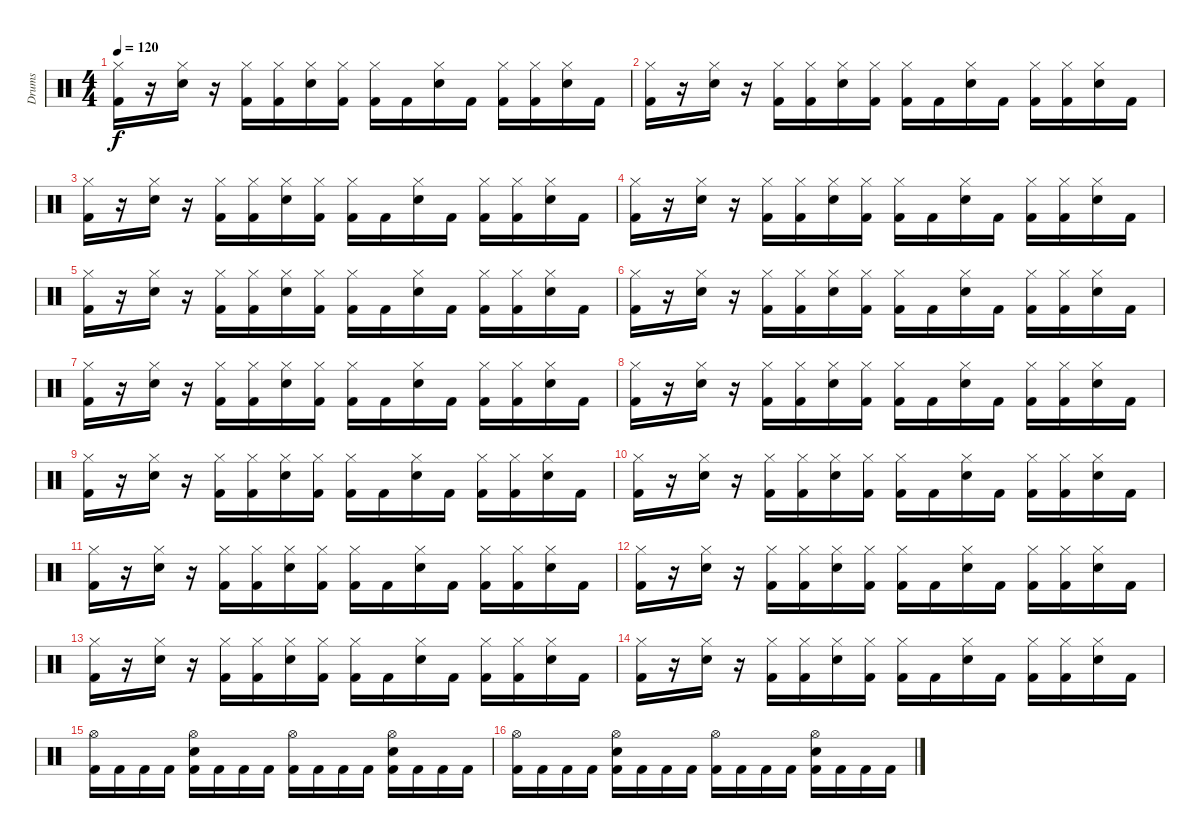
\track ("Drums" "Drums") {instrument percussion}
\staff {score}
\articulation defaults
\ts (4 4)
\tempo 120
\clef neutral
\ks c
("Hi-Hat (closed)" "Kick (hit) 2").16{dy f} r.16 ("Hi-Hat (closed)" "Snare (hit) 2").16 r.16 ("Hi-Hat (closed)" "Kick (hit) 2").16 ("Hi-Hat (closed)" "Kick (hit) 2").16 ("Hi-Hat (closed)" "Snare (hit) 2").16 ("Hi-Hat (closed)" "Kick (hit) 2").16 ("Hi-Hat (closed)" "Kick (hit) 2").16 "Kick (hit) 2".16 ("Hi-Hat (closed)" "Snare (hit) 2").16 "Kick (hit) 2".16 ("Hi-Hat (closed)" "Kick (hit) 2").16 ("Hi-Hat (closed)" "Kick (hit) 2").16 ("Hi-Hat (closed)" "Snare (hit) 2").16 "Kick (hit) 2".16 |
("Hi-Hat (closed)" "Kick (hit) 2").16 r.16 ("Hi-Hat (closed)" "Snare (hit) 2").16 r.16 ("Hi-Hat (closed)" "Kick (hit) 2").16 ("Hi-Hat (closed)" "Kick (hit) 2").16 ("Hi-Hat (closed)" "Snare (hit) 2").16 ("Hi-Hat (closed)" "Kick (hit) 2").16 ("Hi-Hat (closed)" "Kick (hit) 2").16 "Kick (hit) 2".16 ("Hi-Hat (closed)" "Snare (hit) 2").16 "Kick (hit) 2".16 ("Hi-Hat (closed)" "Kick (hit) 2").16 ("Hi-Hat (closed)" "Kick (hit) 2").16 ("Hi-Hat (closed)" "Snare (hit) 2").16 "Kick (hit) 2".16 |
("Hi-Hat (closed)" "Kick (hit) 2").16 r.16 ("Hi-Hat (closed)" "Snare (hit) 2").16 r.16 ("Hi-Hat (closed)" "Kick (hit) 2").16 ("Hi-Hat (closed)" "Kick (hit) 2").16 ("Hi-Hat (closed)" "Snare (hit) 2").16 ("Hi-Hat (closed)" "Kick (hit) 2").16 ("Hi-Hat (closed)" "Kick (hit) 2").16 "Kick (hit) 2".16 ("Hi-Hat (closed)" "Snare (hit) 2").16 "Kick (hit) 2".16 ("Hi-Hat (closed)" "Kick (hit) 2").16 ("Hi-Hat (closed)" "Kick (hit) 2").16 ("Hi-Hat (closed)" "Snare (hit) 2").16 "Kick (hit) 2".16 |
("Hi-Hat (closed)" "Kick (hit) 2").16 r.16 ("Hi-Hat (closed)" "Snare (hit) 2").16 r.16 ("Hi-Hat (closed)" "Kick (hit) 2").16 ("Hi-Hat (closed)" "Kick (hit) 2").16 ("Hi-Hat (closed)" "Snare (hit) 2").16 ("Hi-Hat (closed)" "Kick (hit) 2").16 ("Hi-Hat (closed)" "Kick (hit) 2").16 "Kick (hit) 2".16 ("Hi-Hat (closed)" "Snare (hit) 2").16 "Kick (hit) 2".16 ("Hi-Hat (closed)" "Kick (hit) 2").16 ("Hi-Hat (closed)" "Kick (hit) 2").16 ("Hi-Hat (closed)" "Snare (hit) 2").16 "Kick (hit) 2".16 |
("Hi-Hat (closed)" "Kick (hit) 2").16 r.16 ("Hi-Hat (closed)" "Snare (hit) 2").16 r.16 ("Hi-Hat (closed)" "Kick (hit) 2").16 ("Hi-Hat (closed)" "Kick (hit) 2").16 ("Hi-Hat (closed)" "Snare (hit) 2").16 ("Hi-Hat (closed)" "Kick (hit) 2").16 ("Hi-Hat (closed)" "Kick (hit) 2").16 "Kick (hit) 2".16 ("Hi-Hat (closed)" "Snare (hit) 2").16 "Kick (hit) 2".16 ("Hi-Hat (closed)" "Kick (hit) 2").16 ("Hi-Hat (closed)" "Kick (hit) 2").16 ("Hi-Hat (closed)" "Snare (hit) 2").16 "Kick (hit) 2".16 |
("Hi-Hat (closed)" "Kick (hit) 2").16 r.16 ("Hi-Hat (closed)" "Snare (hit) 2").16 r.16 ("Hi-Hat (closed)" "Kick (hit) 2").16 ("Hi-Hat (closed)" "Kick (hit) 2").16 ("Hi-Hat (closed)" "Snare (hit) 2").16 ("Hi-Hat (closed)" "Kick (hit) 2").16 ("Hi-Hat (closed)" "Kick (hit) 2").16 "Kick (hit) 2".16 ("Hi-Hat (closed)" "Snare (hit) 2").16 "Kick (hit) 2".16 ("Hi-Hat (closed)" "Kick (hit) 2").16 ("Hi-Hat (closed)" "Kick (hit) 2").16 ("Hi-Hat (closed)" "Snare (hit) 2").16 "Kick (hit) 2".16 |
("Hi-Hat (closed)" "Kick (hit) 2").16 r.16 ("Hi-Hat (closed)" "Snare (hit) 2").16 r.16 ("Hi-Hat (closed)" "Kick (hit) 2").16 ("Hi-Hat (closed)" "Kick (hit) 2").16 ("Hi-Hat (closed)" "Snare (hit) 2").16 ("Hi-Hat (closed)" "Kick (hit) 2").16 ("Hi-Hat (closed)" "Kick (hit) 2").16 "Kick (hit) 2".16 ("Hi-Hat (closed)" "Snare (hit) 2").16 "Kick (hit) 2".16 ("Hi-Hat (closed)" "Kick (hit) 2").16 ("Hi-Hat (closed)" "Kick (hit) 2").16 ("Hi-Hat (closed)" "Snare (hit) 2").16 "Kick (hit) 2".16 |
("Hi-Hat (closed)" "Kick (hit) 2").16 r.16 ("Hi-Hat (closed)" "Snare (hit) 2").16 r.16 ("Hi-Hat (closed)" "Kick (hit) 2").16 ("Hi-Hat (closed)" "Kick (hit) 2").16 ("Hi-Hat (closed)" "Snare (hit) 2").16 ("Hi-Hat (closed)" "Kick (hit) 2").16 ("Hi-Hat (closed)" "Kick (hit) 2").16 "Kick (hit) 2".16 ("Hi-Hat (closed)" "Snare (hit) 2").16 "Kick (hit) 2".16 ("Hi-Hat (closed)" "Kick (hit) 2").16 ("Hi-Hat (closed)" "Kick (hit) 2").16 ("Hi-Hat (closed)" "Snare (hit) 2").16 "Kick (hit) 2".16 |
("Hi-Hat (closed)" "Kick (hit) 2").16 r.16 ("Hi-Hat (closed)" "Snare (hit) 2").16 r.16 ("Hi-Hat (closed)" "Kick (hit) 2").16 ("Hi-Hat (closed)" "Kick (hit) 2").16 ("Hi-Hat (closed)" "Snare (hit) 2").16 ("Hi-Hat (closed)" "Kick (hit) 2").16 ("Hi-Hat (closed)" "Kick (hit) 2").16 "Kick (hit) 2".16 ("Hi-Hat (closed)" "Snare (hit) 2").16 "Kick (hit) 2".16 ("Hi-Hat (closed)" "Kick (hit) 2").16 ("Hi-Hat (closed)" "Kick (hit) 2").16 ("Hi-Hat (closed)" "Snare (hit) 2").16 "Kick (hit) 2".16 |
("Hi-Hat (closed)" "Kick (hit) 2").16 r.16 ("Hi-Hat (closed)" "Snare (hit) 2").16 r.16 ("Hi-Hat (closed)" "Kick (hit) 2").16 ("Hi-Hat (closed)" "Kick (hit) 2").16 ("Hi-Hat (closed)" "Snare (hit) 2").16 ("Hi-Hat (closed)" "Kick (hit) 2").16 ("Hi-Hat (closed)" "Kick (hit) 2").16 "Kick (hit) 2".16 ("Hi-Hat (closed)" "Snare (hit) 2").16 "Kick (hit) 2".16 ("Hi-Hat (closed)" "Kick (hit) 2").16 ("Hi-Hat (closed)" "Kick (hit) 2").16 ("Hi-Hat (closed)" "Snare (hit) 2").16 "Kick (hit) 2".16 |
("Hi-Hat (closed)" "Kick (hit) 2").16 r.16 ("Hi-Hat (closed)" "Snare (hit) 2").16 r.16 ("Hi-Hat (closed)" "Kick (hit) 2").16 ("Hi-Hat (closed)" "Kick (hit) 2").16 ("Hi-Hat (closed)" "Snare (hit) 2").16 ("Hi-Hat (closed)" "Kick (hit) 2").16 ("Hi-Hat (closed)" "Kick (hit) 2").16 "Kick (hit) 2".16 ("Hi-Hat (closed)" "Snare (hit) 2").16 "Kick (hit) 2".16 ("Hi-Hat (closed)" "Kick (hit) 2").16 ("Hi-Hat (closed)" "Kick (hit) 2").16 ("Hi-Hat (closed)" "Snare (hit) 2").16 "Kick (hit) 2".16 |
("Hi-Hat (closed)" "Kick (hit) 2").16 r.16 ("Hi-Hat (closed)" "Snare (hit) 2").16 r.16 ("Hi-Hat (closed)" "Kick (hit) 2").16 ("Hi-Hat (closed)" "Kick (hit) 2").16 ("Hi-Hat (closed)" "Snare (hit) 2").16 ("Hi-Hat (closed)" "Kick (hit) 2").16 ("Hi-Hat (closed)" "Kick (hit) 2").16 "Kick (hit) 2".16 ("Hi-Hat (closed)" "Snare (hit) 2").16 "Kick (hit) 2".16 ("Hi-Hat (closed)" "Kick (hit) 2").16 ("Hi-Hat (closed)" "Kick (hit) 2").16 ("Hi-Hat (closed)" "Snare (hit) 2").16 "Kick (hit) 2".16 |
("Hi-Hat (closed)" "Kick (hit) 2").16 r.16 ("Hi-Hat (closed)" "Snare (hit) 2").16 r.16 ("Hi-Hat (closed)" "Kick (hit) 2").16 ("Hi-Hat (closed)" "Kick (hit) 2").16 ("Hi-Hat (closed)" "Snare (hit) 2").16 ("Hi-Hat (closed)" "Kick (hit) 2").16 ("Hi-Hat (closed)" "Kick (hit) 2").16 "Kick (hit) 2".16 ("Hi-Hat (closed)" "Snare (hit) 2").16 "Kick (hit) 2".16 ("Hi-Hat (closed)" "Kick (hit) 2").16 ("Hi-Hat (closed)" "Kick (hit) 2").16 ("Hi-Hat (closed)" "Snare (hit) 2").16 "Kick (hit) 2".16 |
("Hi-Hat (closed)" "Kick (hit) 2").16 r.16 ("Hi-Hat (closed)" "Snare (hit) 2").16 r.16 ("Hi-Hat (closed)" "Kick (hit) 2").16 ("Hi-Hat (closed)" "Kick (hit) 2").16 ("Hi-Hat (closed)" "Snare (hit) 2").16 ("Hi-Hat (closed)" "Kick (hit) 2").16 ("Hi-Hat (closed)" "Kick (hit) 2").16 "Kick (hit) 2".16 ("Hi-Hat (closed)" "Snare (hit) 2").16 "Kick (hit) 2".16 ("Hi-Hat (closed)" "Kick (hit) 2").16 ("Hi-Hat (closed)" "Kick (hit) 2").16 ("Hi-Hat (closed)" "Snare (hit) 2").16 "Kick (hit) 2".16 |
("Hi-Hat (open)" "Kick (hit) 2").16 "Kick (hit) 2".16 "Kick (hit) 2".16 "Kick (hit) 2".16 ("Hi-Hat (open)" "Snare (hit) 2" "Kick (hit) 2").16 "Kick (hit) 2".16 "Kick (hit) 2".16 "Kick (hit) 2".16 ("Hi-Hat (open)" "Kick (hit) 2").16 "Kick (hit) 2".16 "Kick (hit) 2".16 "Kick (hit) 2".16 ("Hi-Hat (open)" "Snare (hit) 2" "Kick (hit) 2").16 "Kick (hit) 2".16 "Kick (hit) 2".16 "Kick (hit) 2".16 |
("Hi-Hat (open)" "Kick (hit) 2").16 "Kick (hit) 2".16 "Kick (hit) 2".16 "Kick (hit) 2".16 ("Hi-Hat (open)" "Snare (hit) 2" "Kick (hit) 2").16 "Kick (hit) 2".16 "Kick (hit) 2".16 "Kick (hit) 2".16 ("Hi-Hat (open)" "Kick (hit) 2").16 "Kick (hit) 2".16 "Kick (hit) 2".16 "Kick (hit) 2".16 ("Hi-Hat (open)" "Snare (hit) 2" "Kick (hit) 2").16 "Kick (hit) 2".16 "Kick (hit) 2".16 "Kick (hit) 2".16
